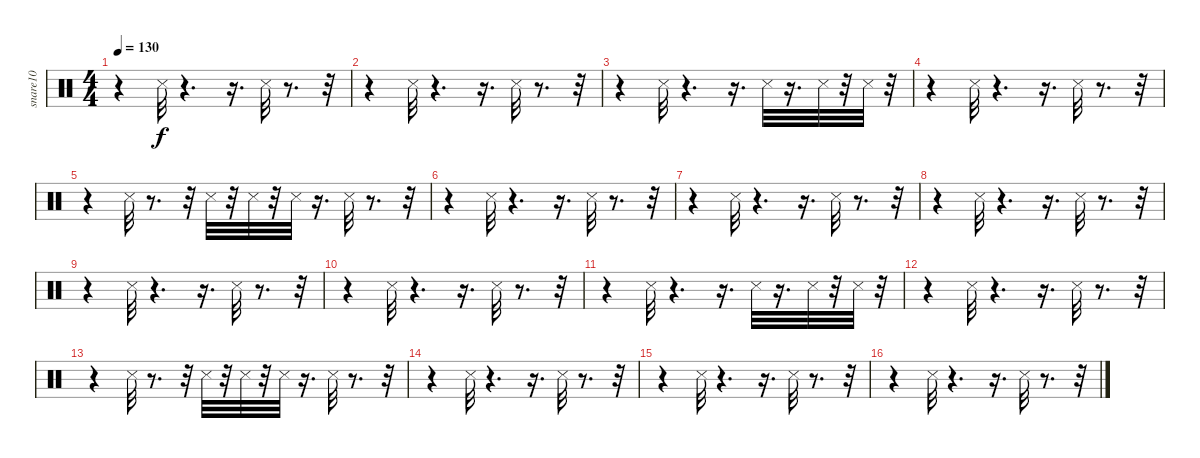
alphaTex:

\track ("snare10             " "snare10   ") {instrument percussion}
\staff {score}
\articulation defaults
\ts (4 4)
\tempo 130
\clef neutral
\ks c
r.4{dy f} "Metronome (hit)".32 r.4{d} r.16{d} "Metronome (hit)".32 r.8{d} r.32 |
r.4 "Metronome (hit)".32 r.4{d} r.16{d} "Metronome (hit)".32 r.8{d} r.32 |
r.4 "Metronome (hit)".32 r.4{d} r.16{d} "Metronome (hit)".32 r.16{d} "Metronome (hit)".32 r.32 "Metronome (hit)".32 r.32 |
r.4 "Metronome (hit)".32 r.4{d} r.16{d} "Metronome (hit)".32 r.8{d} r.32 |
r.4 "Metronome (hit)".32 r.8{d} r.32 "Metronome (hit)".32 r.32 "Metronome (hit)".32 r.32 "Metronome (hit)".32 r.16{d} "Metronome (hit)".32 r.8{d} r.32 |
r.4 "Metronome (hit)".32 r.4{d} r.16{d} "Metronome (hit)".32 r.8{d} r.32 |
r.4 "Metronome (hit)".32 r.4{d} r.16{d} "Metronome (hit)".32 r.8{d} r.32 |
r.4 "Metronome (hit)".32 r.4{d} r.16{d} "Metronome (hit)".32 r.8{d} r.32 |
r.4 "Metronome (hit)".32 r.4{d} r.16{d} "Metronome (hit)".32 r.8{d} r.32 |
r.4 "Metronome (hit)".32 r.4{d} r.16{d} "Metronome (hit)".32 r.8{d} r.32 |
r.4 "Metronome (hit)".32 r.4{d} r.16{d} "Metronome (hit)".32 r.16{d} "Metronome (hit)".32 r.32 "Metronome (hit)".32 r.32 |
r.4 "Metronome (hit)".32 r.4{d} r.16{d} "Metronome (hit)".32 r.8{d} r.32 |
r.4 "Metronome (hit)".32 r.8{d} r.32 "Metronome (hit)".32 r.32 "Metronome (hit)".32 r.32 "Metronome (hit)".32 r.16{d} "Metronome (hit)".32 r.8{d} r.32 |
r.4 "Metronome (hit)".32 r.4{d} r.16{d} "Metronome (hit)".32 r.8{d} r.32 |
r.4 "Metronome (hit)".32 r.4{d} r.16{d} "Metronome (hit)".32 r.8{d} r.32 |
r.4 "Metronome (hit)".32 r.4{d} r.16{d} "Metronome (hit)".32 r.8{d} r.32
